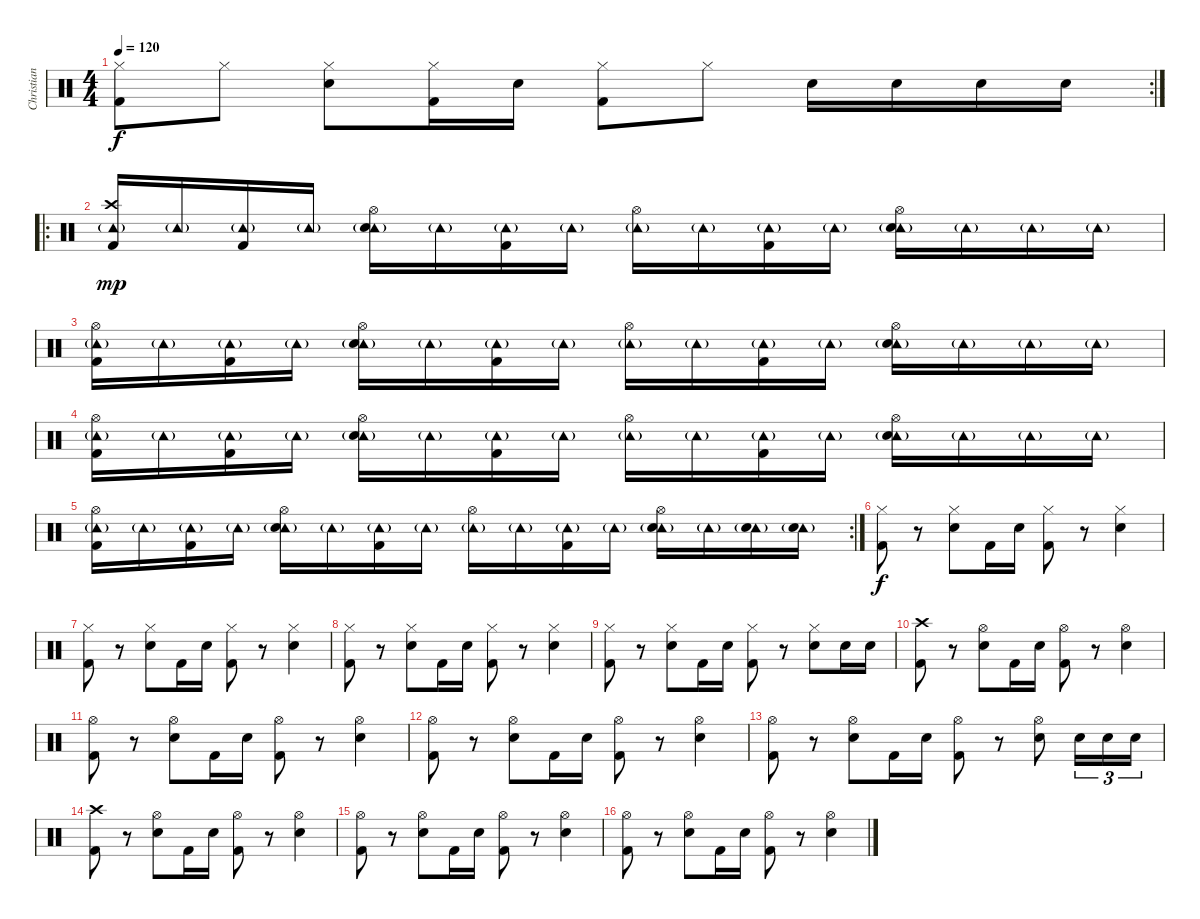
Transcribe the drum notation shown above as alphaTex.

\track ("Christian" "Christian") {instrument percussion}
\staff {score}
\articulation defaults
\rc 2
\ts (4 4)
\tempo 120
\clef neutral
\ks c
("Hi-Hat (closed)" "Kick (hit) 2").8{dy f} "Hi-Hat (closed)".8 ("Hi-Hat (closed)" "Snare (hit) 2").8 ("Hi-Hat (closed)" "Kick (hit) 2").16 "Snare (hit) 2".16 ("Hi-Hat (closed)" "Kick (hit) 2").8 "Hi-Hat (closed)".8 "Snare (hit) 2".16 "Snare (hit) 2".16 "Snare (hit) 2".16 "Snare (hit) 2".16 |
\ro
("Crash high (hit)" "Tambourine (hit)"{g} "Kick (hit) 2").16{dy mp} "Tambourine (hit)"{g}.16 ("Tambourine (hit)"{g} "Kick (hit) 2").16 "Tambourine (hit)"{g}.16 ("Tambourine (hit)"{g} "Hi-Hat (open)" "Snare (hit) 2").16 "Tambourine (hit)"{g}.16 ("Tambourine (hit)"{g} "Kick (hit) 2").16 "Tambourine (hit)"{g}.16 ("Tambourine (hit)"{g} "Hi-Hat (open)").16 "Tambourine (hit)"{g}.16 ("Tambourine (hit)"{g} "Kick (hit) 2").16 "Tambourine (hit)"{g}.16 ("Tambourine (hit)"{g} "Hi-Hat (open)" "Snare (hit) 2").16 "Tambourine (hit)"{g}.16 "Tambourine (hit)"{g}.16 "Tambourine (hit)"{g}.16 |
("Tambourine (hit)"{g} "Hi-Hat (open)" "Kick (hit) 2").16 "Tambourine (hit)"{g}.16 ("Tambourine (hit)"{g} "Kick (hit) 2").16 "Tambourine (hit)"{g}.16 ("Tambourine (hit)"{g} "Hi-Hat (open)" "Snare (hit) 2").16 "Tambourine (hit)"{g}.16 ("Tambourine (hit)"{g} "Kick (hit) 2").16 "Tambourine (hit)"{g}.16 ("Tambourine (hit)"{g} "Hi-Hat (open)").16 "Tambourine (hit)"{g}.16 ("Tambourine (hit)"{g} "Kick (hit) 2").16 "Tambourine (hit)"{g}.16 ("Tambourine (hit)"{g} "Hi-Hat (open)" "Snare (hit) 2").16 "Tambourine (hit)"{g}.16 "Tambourine (hit)"{g}.16 "Tambourine (hit)"{g}.16 |
("Tambourine (hit)"{g} "Hi-Hat (open)" "Kick (hit) 2").16 "Tambourine (hit)"{g}.16 ("Tambourine (hit)"{g} "Kick (hit) 2").16 "Tambourine (hit)"{g}.16 ("Tambourine (hit)"{g} "Hi-Hat (open)" "Snare (hit) 2").16 "Tambourine (hit)"{g}.16 ("Tambourine (hit)"{g} "Kick (hit) 2").16 "Tambourine (hit)"{g}.16 ("Tambourine (hit)"{g} "Hi-Hat (open)").16 "Tambourine (hit)"{g}.16 ("Tambourine (hit)"{g} "Kick (hit) 2").16 "Tambourine (hit)"{g}.16 ("Tambourine (hit)"{g} "Hi-Hat (open)" "Snare (hit) 2").16 "Tambourine (hit)"{g}.16 "Tambourine (hit)"{g}.16 "Tambourine (hit)"{g}.16 |
\rc 2
("Tambourine (hit)"{g} "Hi-Hat (open)" "Kick (hit) 2").16 "Tambourine (hit)"{g}.16 ("Tambourine (hit)"{g} "Kick (hit) 2").16 "Tambourine (hit)"{g}.16 ("Tambourine (hit)"{g} "Hi-Hat (open)" "Snare (hit) 2").16 "Tambourine (hit)"{g}.16 ("Tambourine (hit)"{g} "Kick (hit) 2").16 "Tambourine (hit)"{g}.16 ("Tambourine (hit)"{g} "Hi-Hat (open)").16 "Tambourine (hit)"{g}.16 ("Tambourine (hit)"{g} "Kick (hit) 2").16 "Tambourine (hit)"{g}.16 ("Tambourine (hit)"{g} "Hi-Hat (open)" "Snare (hit) 2").16 "Tambourine (hit)"{g}.16 ("Tambourine (hit)"{g} "Snare (hit) 2").16 ("Tambourine (hit)"{g} "Snare (hit) 2").16 |
("Hi-Hat (closed)" "Kick (hit) 2").8{dy f volume 0} r.8{volume 10} ("Hi-Hat (closed)" "Snare (hit) 2").8 "Kick (hit) 2".16 "Snare (hit) 2".16 ("Hi-Hat (closed)" "Kick (hit) 2").8 r.8 ("Hi-Hat (closed)" "Snare (hit) 2").4 |
("Hi-Hat (closed)" "Kick (hit) 2").8 r.8 ("Hi-Hat (closed)" "Snare (hit) 2").8 "Kick (hit) 2".16 "Snare (hit) 2".16 ("Hi-Hat (closed)" "Kick (hit) 2").8 r.8 ("Hi-Hat (closed)" "Snare (hit) 2").4 |
("Hi-Hat (closed)" "Kick (hit) 2").8 r.8 ("Hi-Hat (closed)" "Snare (hit) 2").8 "Kick (hit) 2".16 "Snare (hit) 2".16 ("Hi-Hat (closed)" "Kick (hit) 2").8 r.8 ("Hi-Hat (closed)" "Snare (hit) 2").4 |
("Hi-Hat (closed)" "Kick (hit) 2").8 r.8 ("Hi-Hat (closed)" "Snare (hit) 2").8 "Kick (hit) 2".16 "Snare (hit) 2".16 ("Hi-Hat (closed)" "Kick (hit) 2").8 r.8 ("Hi-Hat (closed)" "Snare (hit) 2").8 "Snare (hit) 2".16 "Snare (hit) 2".16 |
("Crash high (hit)" "Kick (hit) 2").8 r.8 ("Hi-Hat (open)" "Snare (hit) 2").8 "Kick (hit) 2".16 "Snare (hit) 2".16 ("Hi-Hat (open)" "Kick (hit) 2").8 r.8 ("Hi-Hat (open)" "Snare (hit) 2").4 |
("Hi-Hat (open)" "Kick (hit) 2").8 r.8 ("Hi-Hat (open)" "Snare (hit) 2").8 "Kick (hit) 2".16 "Snare (hit) 2".16 ("Hi-Hat (open)" "Kick (hit) 2").8 r.8 ("Hi-Hat (open)" "Snare (hit) 2").4 |
("Hi-Hat (open)" "Kick (hit) 2").8 r.8 ("Hi-Hat (open)" "Snare (hit) 2").8 "Kick (hit) 2".16 "Snare (hit) 2".16 ("Hi-Hat (open)" "Kick (hit) 2").8 r.8 ("Hi-Hat (open)" "Snare (hit) 2").4 |
("Hi-Hat (open)" "Kick (hit) 2").8 r.8 ("Hi-Hat (open)" "Snare (hit) 2").8 "Kick (hit) 2".16 "Snare (hit) 2".16 ("Hi-Hat (open)" "Kick (hit) 2").8 r.8 ("Hi-Hat (open)" "Snare (hit) 2").8 "Snare (hit) 2".16{tu (3 2)} "Snare (hit) 2".16{tu (3 2)} "Snare (hit) 2".16{tu (3 2)} |
("Crash high (hit)" "Kick (hit) 2").8 r.8 ("Hi-Hat (open)" "Snare (hit) 2").8 "Kick (hit) 2".16 "Snare (hit) 2".16 ("Hi-Hat (open)" "Kick (hit) 2").8 r.8 ("Hi-Hat (open)" "Snare (hit) 2").4 |
("Hi-Hat (open)" "Kick (hit) 2").8 r.8 ("Hi-Hat (open)" "Snare (hit) 2").8 "Kick (hit) 2".16 "Snare (hit) 2".16 ("Hi-Hat (open)" "Kick (hit) 2").8 r.8 ("Hi-Hat (open)" "Snare (hit) 2").4 |
("Hi-Hat (open)" "Kick (hit) 2").8 r.8 ("Hi-Hat (open)" "Snare (hit) 2").8 "Kick (hit) 2".16 "Snare (hit) 2".16 ("Hi-Hat (open)" "Kick (hit) 2").8 r.8 ("Hi-Hat (open)" "Snare (hit) 2").4
